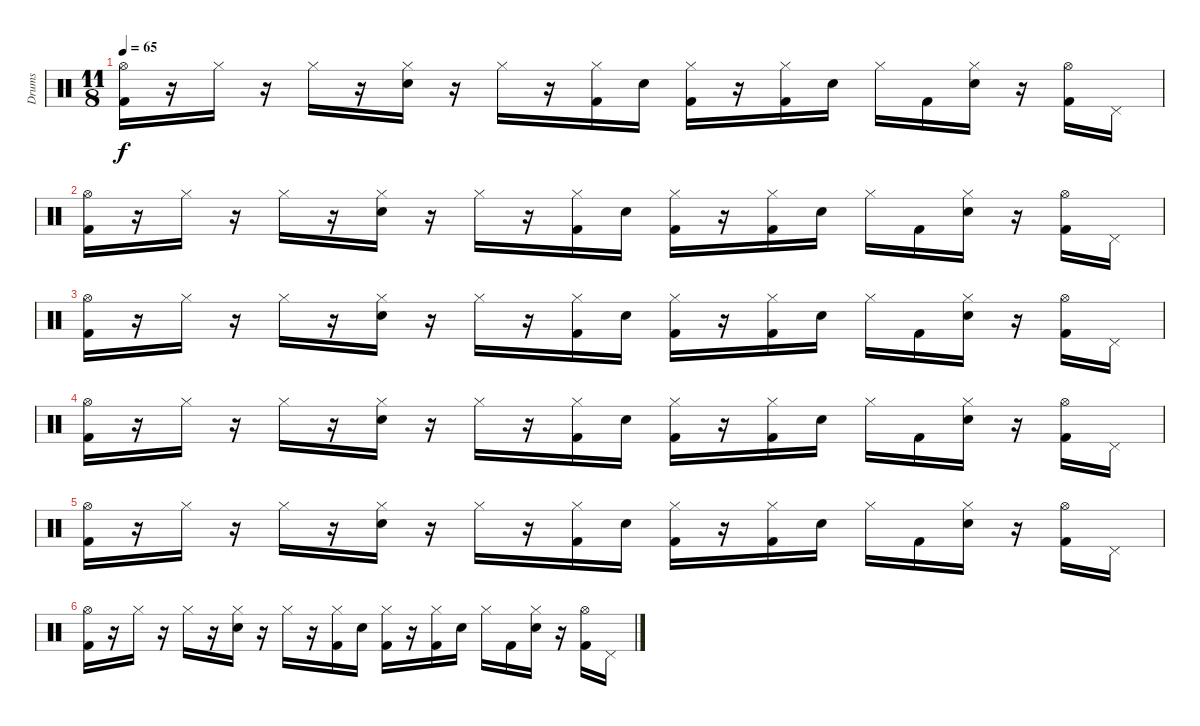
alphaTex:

\track ("Drums" "Drums") {instrument percussion}
\staff {score}
\articulation defaults
\ts (11 8)
\tempo 65
\clef neutral
\ks c
("Hi-Hat (open)" "Kick (hit) 2").16{dy f} r.16 "Hi-Hat (closed)".16 r.16 "Hi-Hat (closed)".16 r.16 ("Hi-Hat (closed)" "Electric Snare (hit)").16 r.16 "Hi-Hat (closed)".16 r.16 ("Hi-Hat (closed)" "Kick (hit) 2").16 "Electric Snare (hit)".16 ("Hi-Hat (closed)" "Kick (hit) 2").16 r.16 ("Hi-Hat (closed)" "Kick (hit) 2").16 "Electric Snare (hit)".16 "Hi-Hat (closed)".16 "Kick (hit) 2".16 ("Hi-Hat (closed)" "Electric Snare (hit)").16 r.16 ("Hi-Hat (open)" "Kick (hit) 2").16 "Pedal Hi-Hat (hit)".16 |
("Hi-Hat (open)" "Kick (hit) 2").16 r.16 "Hi-Hat (closed)".16 r.16 "Hi-Hat (closed)".16 r.16 ("Hi-Hat (closed)" "Electric Snare (hit)").16 r.16 "Hi-Hat (closed)".16 r.16 ("Hi-Hat (closed)" "Kick (hit) 2").16 "Electric Snare (hit)".16 ("Hi-Hat (closed)" "Kick (hit) 2").16 r.16 ("Hi-Hat (closed)" "Kick (hit) 2").16 "Electric Snare (hit)".16 "Hi-Hat (closed)".16 "Kick (hit) 2".16 ("Hi-Hat (closed)" "Electric Snare (hit)").16 r.16 ("Hi-Hat (open)" "Kick (hit) 2").16 "Pedal Hi-Hat (hit)".16 |
("Hi-Hat (open)" "Kick (hit) 2").16 r.16 "Hi-Hat (closed)".16 r.16 "Hi-Hat (closed)".16 r.16 ("Hi-Hat (closed)" "Electric Snare (hit)").16 r.16 "Hi-Hat (closed)".16 r.16 ("Hi-Hat (closed)" "Kick (hit) 2").16 "Electric Snare (hit)".16 ("Hi-Hat (closed)" "Kick (hit) 2").16 r.16 ("Hi-Hat (closed)" "Kick (hit) 2").16 "Electric Snare (hit)".16 "Hi-Hat (closed)".16 "Kick (hit) 2".16 ("Hi-Hat (closed)" "Electric Snare (hit)").16 r.16 ("Hi-Hat (open)" "Kick (hit) 2").16 "Pedal Hi-Hat (hit)".16 |
("Hi-Hat (open)" "Kick (hit) 2").16 r.16 "Hi-Hat (closed)".16 r.16 "Hi-Hat (closed)".16 r.16 ("Hi-Hat (closed)" "Electric Snare (hit)").16 r.16 "Hi-Hat (closed)".16 r.16 ("Hi-Hat (closed)" "Kick (hit) 2").16 "Electric Snare (hit)".16 ("Hi-Hat (closed)" "Kick (hit) 2").16 r.16 ("Hi-Hat (closed)" "Kick (hit) 2").16 "Electric Snare (hit)".16 "Hi-Hat (closed)".16 "Kick (hit) 2".16 ("Hi-Hat (closed)" "Electric Snare (hit)").16 r.16 ("Hi-Hat (open)" "Kick (hit) 2").16 "Pedal Hi-Hat (hit)".16 |
("Hi-Hat (open)" "Kick (hit) 2").16 r.16 "Hi-Hat (closed)".16 r.16 "Hi-Hat (closed)".16 r.16 ("Hi-Hat (closed)" "Electric Snare (hit)").16 r.16 "Hi-Hat (closed)".16 r.16 ("Hi-Hat (closed)" "Kick (hit) 2").16 "Electric Snare (hit)".16 ("Hi-Hat (closed)" "Kick (hit) 2").16 r.16 ("Hi-Hat (closed)" "Kick (hit) 2").16 "Electric Snare (hit)".16 "Hi-Hat (closed)".16 "Kick (hit) 2".16 ("Hi-Hat (closed)" "Electric Snare (hit)").16 r.16 ("Hi-Hat (open)" "Kick (hit) 2").16 "Pedal Hi-Hat (hit)".16 |
("Hi-Hat (open)" "Kick (hit) 2").16 r.16 "Hi-Hat (closed)".16 r.16 "Hi-Hat (closed)".16 r.16 ("Hi-Hat (closed)" "Electric Snare (hit)").16 r.16 "Hi-Hat (closed)".16 r.16 ("Hi-Hat (closed)" "Kick (hit) 2").16 "Electric Snare (hit)".16 ("Hi-Hat (closed)" "Kick (hit) 2").16 r.16 ("Hi-Hat (closed)" "Kick (hit) 2").16 "Electric Snare (hit)".16 "Hi-Hat (closed)".16 "Kick (hit) 2".16 ("Hi-Hat (closed)" "Electric Snare (hit)").16 r.16 ("Hi-Hat (open)" "Kick (hit) 2").16 "Pedal Hi-Hat (hit)".16
